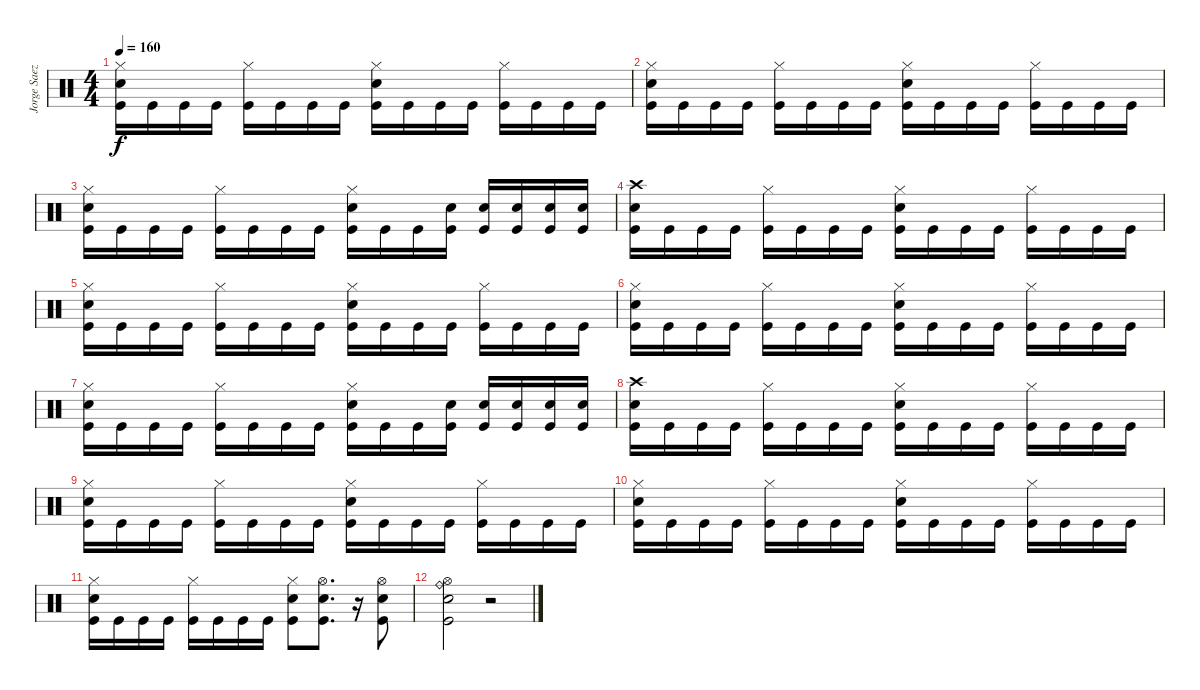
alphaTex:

\track ("Jorge Saez" "Jorge Saez") {instrument percussion}
\staff {score}
\articulation defaults
\ts (4 4)
\tempo 160
\clef neutral
\ks c
("Hi-Hat (closed)" "Snare (hit) 2" "Kick (hit)").16{dy f} "Kick (hit)".16 "Kick (hit)".16 "Kick (hit)".16 ("Hi-Hat (closed)" "Kick (hit)").16 "Kick (hit)".16 "Kick (hit)".16 "Kick (hit)".16 ("Hi-Hat (closed)" "Snare (hit) 2" "Kick (hit)").16 "Kick (hit)".16 "Kick (hit)".16 "Kick (hit)".16 ("Hi-Hat (closed)" "Kick (hit)").16 "Kick (hit)".16 "Kick (hit)".16 "Kick (hit)".16 |
("Hi-Hat (closed)" "Electric Snare (hit)" "Kick (hit)").16 "Kick (hit)".16 "Kick (hit)".16 "Kick (hit)".16 ("Hi-Hat (closed)" "Kick (hit)").16 "Kick (hit)".16 "Kick (hit)".16 "Kick (hit)".16 ("Hi-Hat (closed)" "Snare (hit) 2" "Kick (hit)").16 "Kick (hit)".16 "Kick (hit)".16 "Kick (hit)".16 ("Hi-Hat (closed)" "Kick (hit)").16 "Kick (hit)".16 "Kick (hit)".16 "Kick (hit)".16 |
("Hi-Hat (closed)" "Snare (hit) 2" "Kick (hit)").16 "Kick (hit)".16 "Kick (hit)".16 "Kick (hit)".16 ("Hi-Hat (closed)" "Kick (hit)").16 "Kick (hit)".16 "Kick (hit)".16 "Kick (hit)".16 ("Hi-Hat (closed)" "Snare (hit) 2" "Kick (hit)").16 "Kick (hit)".16 "Kick (hit)".16 ("Electric Snare (hit)" "Kick (hit)").16 ("Electric Snare (hit)" "Kick (hit)").16 ("Electric Snare (hit)" "Kick (hit)").16 ("Electric Snare (hit)" "Kick (hit)").16 ("Electric Snare (hit)" "Kick (hit)").16 |
("Crash high (hit)" "Electric Snare (hit)" "Kick (hit)").16 "Kick (hit)".16 "Kick (hit)".16 "Kick (hit)".16 ("Hi-Hat (closed)" "Kick (hit)").16 "Kick (hit)".16 "Kick (hit)".16 "Kick (hit)".16 ("Hi-Hat (closed)" "Snare (hit) 2" "Kick (hit)").16 "Kick (hit)".16 "Kick (hit)".16 "Kick (hit)".16 ("Hi-Hat (closed)" "Kick (hit)").16 "Kick (hit)".16 "Kick (hit)".16 "Kick (hit)".16 |
("Hi-Hat (closed)" "Snare (hit) 2" "Kick (hit)").16 "Kick (hit)".16 "Kick (hit)".16 "Kick (hit)".16 ("Hi-Hat (closed)" "Kick (hit)").16 "Kick (hit)".16 "Kick (hit)".16 "Kick (hit)".16 ("Hi-Hat (closed)" "Snare (hit) 2" "Kick (hit)").16 "Kick (hit)".16 "Kick (hit)".16 "Kick (hit)".16 ("Hi-Hat (closed)" "Kick (hit)").16 "Kick (hit)".16 "Kick (hit)".16 "Kick (hit)".16 |
("Hi-Hat (closed)" "Electric Snare (hit)" "Kick (hit)").16 "Kick (hit)".16 "Kick (hit)".16 "Kick (hit)".16 ("Hi-Hat (closed)" "Kick (hit)").16 "Kick (hit)".16 "Kick (hit)".16 "Kick (hit)".16 ("Hi-Hat (closed)" "Snare (hit) 2" "Kick (hit)").16 "Kick (hit)".16 "Kick (hit)".16 "Kick (hit)".16 ("Hi-Hat (closed)" "Kick (hit)").16 "Kick (hit)".16 "Kick (hit)".16 "Kick (hit)".16 |
("Hi-Hat (closed)" "Snare (hit) 2" "Kick (hit)").16 "Kick (hit)".16 "Kick (hit)".16 "Kick (hit)".16 ("Hi-Hat (closed)" "Kick (hit)").16 "Kick (hit)".16 "Kick (hit)".16 "Kick (hit)".16 ("Hi-Hat (closed)" "Snare (hit) 2" "Kick (hit)").16 "Kick (hit)".16 "Kick (hit)".16 ("Electric Snare (hit)" "Kick (hit)").16 ("Electric Snare (hit)" "Kick (hit)").16 ("Electric Snare (hit)" "Kick (hit)").16 ("Electric Snare (hit)" "Kick (hit)").16 ("Electric Snare (hit)" "Kick (hit)").16 |
("Crash high (hit)" "Electric Snare (hit)" "Kick (hit)").16 "Kick (hit)".16 "Kick (hit)".16 "Kick (hit)".16 ("Hi-Hat (closed)" "Kick (hit)").16 "Kick (hit)".16 "Kick (hit)".16 "Kick (hit)".16 ("Hi-Hat (closed)" "Snare (hit) 2" "Kick (hit)").16 "Kick (hit)".16 "Kick (hit)".16 "Kick (hit)".16 ("Hi-Hat (closed)" "Kick (hit)").16 "Kick (hit)".16 "Kick (hit)".16 "Kick (hit)".16 |
("Hi-Hat (closed)" "Snare (hit) 2" "Kick (hit)").16 "Kick (hit)".16 "Kick (hit)".16 "Kick (hit)".16 ("Hi-Hat (closed)" "Kick (hit)").16 "Kick (hit)".16 "Kick (hit)".16 "Kick (hit)".16 ("Hi-Hat (closed)" "Snare (hit) 2" "Kick (hit)").16 "Kick (hit)".16 "Kick (hit)".16 "Kick (hit)".16 ("Hi-Hat (closed)" "Kick (hit)").16 "Kick (hit)".16 "Kick (hit)".16 "Kick (hit)".16 |
("Hi-Hat (closed)" "Electric Snare (hit)" "Kick (hit)").16 "Kick (hit)".16 "Kick (hit)".16 "Kick (hit)".16 ("Hi-Hat (closed)" "Kick (hit)").16 "Kick (hit)".16 "Kick (hit)".16 "Kick (hit)".16 ("Hi-Hat (closed)" "Snare (hit) 2" "Kick (hit)").16 "Kick (hit)".16 "Kick (hit)".16 "Kick (hit)".16 ("Hi-Hat (closed)" "Kick (hit)").16 "Kick (hit)".16 "Kick (hit)".16 "Kick (hit)".16 |
("Hi-Hat (closed)" "Snare (hit) 2" "Kick (hit)").16 "Kick (hit)".16 "Kick (hit)".16 "Kick (hit)".16 ("Hi-Hat (closed)" "Kick (hit)").16 "Kick (hit)".16 "Kick (hit)".16 "Kick (hit)".16 ("Hi-Hat (closed)" "Snare (hit) 2" "Kick (hit)").8 ("Hi-Hat (open)" "Electric Snare (hit)" "Kick (hit)").8{d} r.16 ("Hi-Hat (open)" "Electric Snare (hit)" "Kick (hit)").8 |
("Ride (bell)" "Hi-Hat (open)" "Electric Snare (hit)" "Kick (hit)").2 r.2
